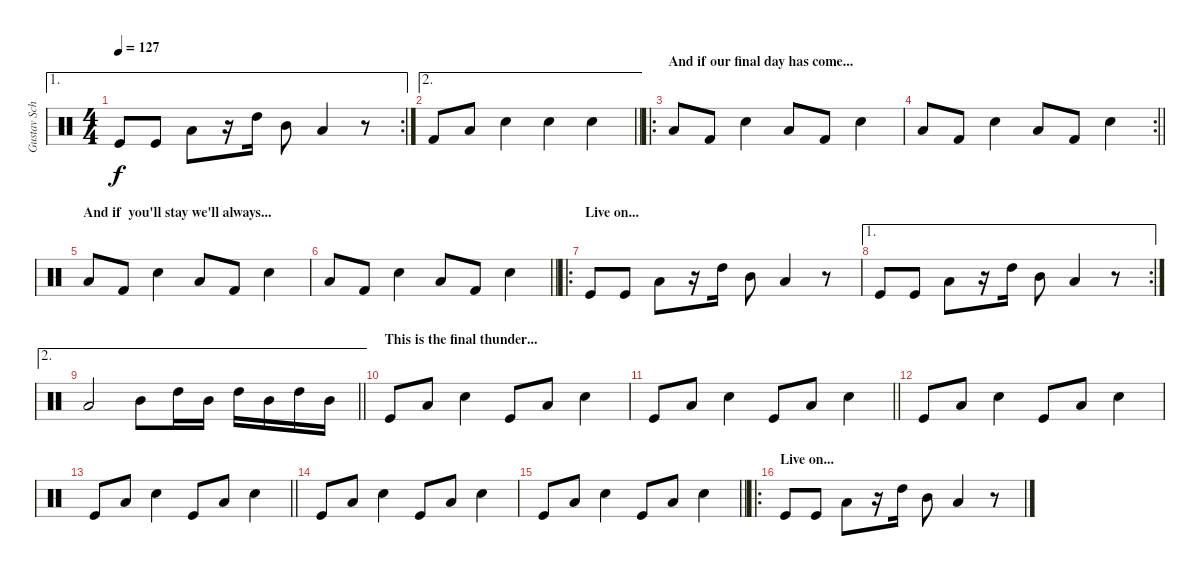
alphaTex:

\track ("Gustav Schäfer" "Gustav Sch") {instrument percussion}
\staff {score}
\articulation defaults
\ae 1
\rc 2
\ts (4 4)
\tempo 127
\clef neutral
\ks c "Kick (hit)".8{dy f} "Kick (hit)".8 "Low Tom (hit)".8
r.16 "High Tom (hit)".16 "Mid Tom (hit)".8 "Low Tom (hit)".4 r.8 |
\ae 2
\barLineRight lightlight "Kick (hit) 2".8 "Low Tom (hit)".8 "Electric Snare (hit)".4 "Electric Snare (hit)".4 "Electric Snare (hit)".4
|
\ro
\section ("" "And if our final day has come...")
"Low Tom (hit)".8 "Kick (hit) 2".8 "Electric Snare (hit)".4 "Low Tom (hit)".8 "Kick (hit) 2".8 "Electric Snare (hit)".4 |
\rc 2
\barLineRight lightlight "Low Tom (hit)".8 "Kick (hit) 2".8 "Electric Snare (hit)".4 "Low Tom (hit)".8 "Kick (hit) 2".8 "Electric Snare (hit)".4
|
\section ("" "And if  you'll stay we'll always...")
"Low Tom (hit)".8 "Kick (hit) 2".8 "Electric Snare (hit)".4 "Low Tom (hit)".8 "Kick (hit) 2".8 "Electric Snare (hit)".4 |
\barLineRight lightlight "Low Tom (hit)".8 "Kick (hit) 2".8 "Electric Snare (hit)".4 "Low Tom (hit)".8 "Kick (hit) 2".8 "Electric Snare (hit)".4
|
\ro
\section ("" "Live on...")
"Kick (hit)".8 "Kick (hit)".8 "Low Tom (hit)".8 r.16 "High Tom (hit)".16 "Mid Tom (hit)".8 "Low Tom (hit)".4 r.8 |
\ae 1
\rc 2 "Kick (hit)".8 "Kick (hit)".8 "Low Tom (hit)".8
r.16 "High Tom (hit)".16 "Mid Tom (hit)".8 "Low Tom (hit)".4 r.8 |
\ae 2
\barLineRight lightlight "Low Tom (hit)".2 "Mid Tom (hit)".8 "High Tom (hit)".16 "Mid Tom (hit)".16 "High Tom (hit)".16 "Mid Tom (hit)".16 "High Tom (hit)".16 "Mid Tom (hit)".16
|
\section ("" "This is the final thunder...")
"Kick (hit)".8 "Low Tom (hit)".8 "Electric Snare (hit)".4 "Kick (hit)".8 "Low Tom (hit)".8 "Electric Snare (hit)".4 |
\barLineRight lightlight "Kick (hit)".8 "Low Tom (hit)".8 "Electric Snare (hit)".4 "Kick (hit)".8 "Low Tom (hit)".8 "Electric Snare (hit)".4
|
"Kick (hit)".8 "Low Tom (hit)".8 "Electric Snare (hit)".4 "Kick (hit)".8 "Low Tom (hit)".8 "Electric Snare (hit)".4 |
\barLineRight lightlight "Kick (hit)".8 "Low Tom (hit)".8 "Electric Snare (hit)".4 "Kick (hit)".8 "Low Tom (hit)".8 "Electric Snare (hit)".4
|
"Kick (hit)".8 "Low Tom (hit)".8 "Electric Snare (hit)".4 "Kick (hit)".8 "Low Tom (hit)".8 "Electric Snare (hit)".4 |
\barLineRight lightlight "Kick (hit)".8 "Low Tom (hit)".8 "Electric Snare (hit)".4 "Kick (hit)".8 "Low Tom (hit)".8 "Electric Snare (hit)".4
|
\ro
\section ("" "Live on...")
"Kick (hit)".8 "Kick (hit)".8 "Low Tom (hit)".8 r.16 "High Tom (hit)".16 "Mid Tom (hit)".8 "Low Tom (hit)".4 r.8
